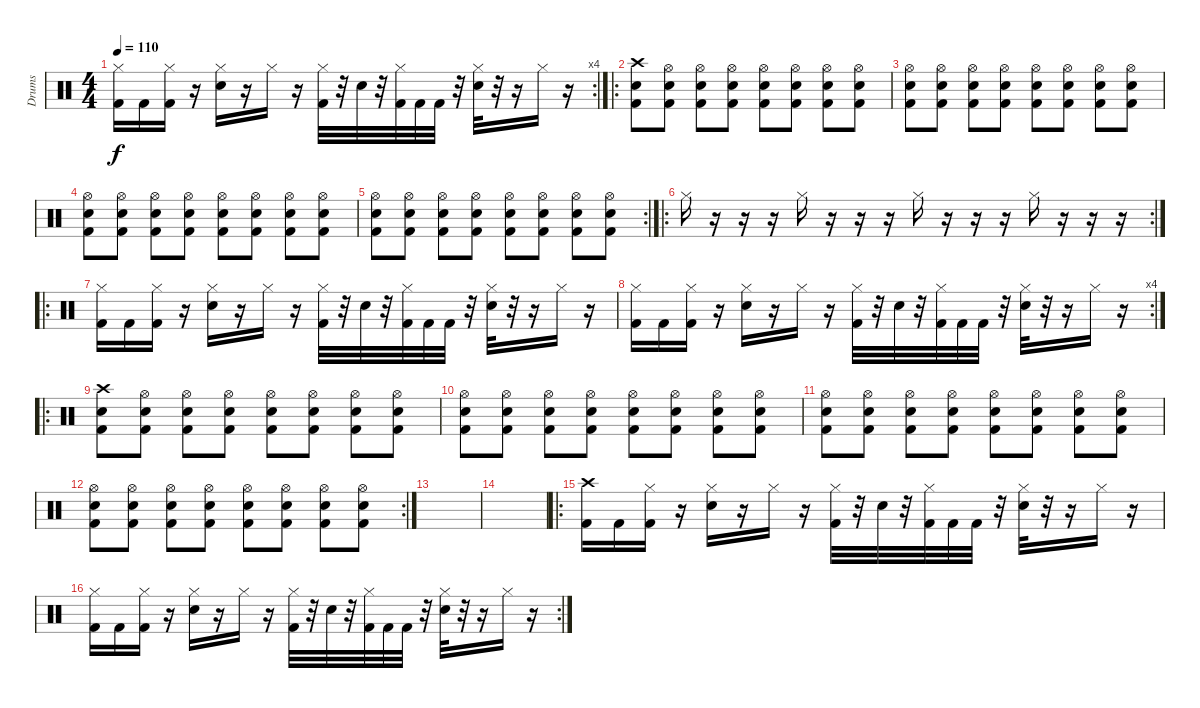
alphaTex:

\track ("Drums" "Drums") {instrument percussion}
\staff {score}
\articulation defaults
\rc 4
\ts (4 4)
\tempo 110
\clef neutral
\ks c
("Hi-Hat (closed)" "Kick (hit) 2").16{dy f} "Kick (hit) 2".16 ("Hi-Hat (closed)" "Kick (hit) 2").16 r.16 ("Hi-Hat (closed)" "Snare (hit) 2").16 r.16 "Hi-Hat (closed)".16 r.16 ("Hi-Hat (closed)" "Kick (hit) 2").32 r.32 "Snare (hit) 2".32 r.32 ("Hi-Hat (closed)" "Kick (hit) 2").32 "Kick (hit) 2".32 "Kick (hit) 2".32 r.32 ("Hi-Hat (closed)" "Snare (hit) 2").32 r.32 r.16 "Hi-Hat (closed)".16 r.16 |
\ro
("Crash high (hit)" "Snare (hit) 2" "Kick (hit) 2").8 ("Hi-Hat (open)" "Snare (hit) 2" "Kick (hit) 2").8 ("Hi-Hat (open)" "Snare (hit) 2" "Kick (hit) 2").8 ("Hi-Hat (open)" "Snare (hit) 2" "Kick (hit) 2").8 ("Hi-Hat (open)" "Snare (hit) 2" "Kick (hit) 2").8 ("Hi-Hat (open)" "Snare (hit) 2" "Kick (hit) 2").8 ("Hi-Hat (open)" "Snare (hit) 2" "Kick (hit) 2").8 ("Hi-Hat (open)" "Snare (hit) 2" "Kick (hit) 2").8 |
("Hi-Hat (open)" "Snare (hit) 2" "Kick (hit) 2").8 ("Hi-Hat (open)" "Snare (hit) 2" "Kick (hit) 2").8 ("Hi-Hat (open)" "Snare (hit) 2" "Kick (hit) 2").8 ("Hi-Hat (open)" "Snare (hit) 2" "Kick (hit) 2").8 ("Hi-Hat (open)" "Snare (hit) 2" "Kick (hit) 2").8 ("Hi-Hat (open)" "Snare (hit) 2" "Kick (hit) 2").8 ("Hi-Hat (open)" "Snare (hit) 2" "Kick (hit) 2").8 ("Hi-Hat (open)" "Snare (hit) 2" "Kick (hit) 2").8 |
("Hi-Hat (open)" "Snare (hit) 2" "Kick (hit) 2").8 ("Hi-Hat (open)" "Snare (hit) 2" "Kick (hit) 2").8 ("Hi-Hat (open)" "Snare (hit) 2" "Kick (hit) 2").8 ("Hi-Hat (open)" "Snare (hit) 2" "Kick (hit) 2").8 ("Hi-Hat (open)" "Snare (hit) 2" "Kick (hit) 2").8 ("Hi-Hat (open)" "Snare (hit) 2" "Kick (hit) 2").8 ("Hi-Hat (open)" "Snare (hit) 2" "Kick (hit) 2").8 ("Hi-Hat (open)" "Snare (hit) 2" "Kick (hit) 2").8 |
\rc 2
("Hi-Hat (open)" "Snare (hit) 2" "Kick (hit) 2").8 ("Hi-Hat (open)" "Snare (hit) 2" "Kick (hit) 2").8 ("Hi-Hat (open)" "Snare (hit) 2" "Kick (hit) 2").8 ("Hi-Hat (open)" "Snare (hit) 2" "Kick (hit) 2").8 ("Hi-Hat (open)" "Snare (hit) 2" "Kick (hit) 2").8 ("Hi-Hat (open)" "Snare (hit) 2" "Kick (hit) 2").8 ("Hi-Hat (open)" "Snare (hit) 2" "Kick (hit) 2").8 ("Hi-Hat (open)" "Snare (hit) 2" "Kick (hit) 2").8 |
\ro
\rc 2 "Hi-Hat (closed)".16
r.16 r.16 r.16 "Hi-Hat (closed)".16 r.16 r.16 r.16 "Hi-Hat (closed)".16 r.16 r.16 r.16 "Hi-Hat (closed)".16 r.16 r.16 r.16 |
\ro
("Hi-Hat (closed)" "Kick (hit) 2").16 "Kick (hit) 2".16 ("Hi-Hat (closed)" "Kick (hit) 2").16 r.16 ("Hi-Hat (closed)" "Snare (hit) 2").16 r.16 "Hi-Hat (closed)".16 r.16 ("Hi-Hat (closed)" "Kick (hit) 2").32 r.32 "Snare (hit) 2".32 r.32 ("Hi-Hat (closed)" "Kick (hit) 2").32 "Kick (hit) 2".32 "Kick (hit) 2".32 r.32 ("Hi-Hat (closed)" "Snare (hit) 2").32 r.32 r.16 "Hi-Hat (closed)".16 r.16 |
\rc 4
("Hi-Hat (closed)" "Kick (hit) 2").16 "Kick (hit) 2".16 ("Hi-Hat (closed)" "Kick (hit) 2").16 r.16 ("Hi-Hat (closed)" "Snare (hit) 2").16 r.16 "Hi-Hat (closed)".16 r.16 ("Hi-Hat (closed)" "Kick (hit) 2").32 r.32 "Snare (hit) 2".32 r.32 ("Hi-Hat (closed)" "Kick (hit) 2").32 "Kick (hit) 2".32 "Kick (hit) 2".32 r.32 ("Hi-Hat (closed)" "Snare (hit) 2").32 r.32 r.16 "Hi-Hat (closed)".16 r.16 |
\ro
("Crash high (hit)" "Snare (hit) 2" "Kick (hit) 2").8 ("Hi-Hat (open)" "Snare (hit) 2" "Kick (hit) 2").8 ("Hi-Hat (open)" "Snare (hit) 2" "Kick (hit) 2").8 ("Hi-Hat (open)" "Snare (hit) 2" "Kick (hit) 2").8 ("Hi-Hat (open)" "Snare (hit) 2" "Kick (hit) 2").8 ("Hi-Hat (open)" "Snare (hit) 2" "Kick (hit) 2").8 ("Hi-Hat (open)" "Snare (hit) 2" "Kick (hit) 2").8 ("Hi-Hat (open)" "Snare (hit) 2" "Kick (hit) 2").8 |
("Hi-Hat (open)" "Snare (hit) 2" "Kick (hit) 2").8 ("Hi-Hat (open)" "Snare (hit) 2" "Kick (hit) 2").8 ("Hi-Hat (open)" "Snare (hit) 2" "Kick (hit) 2").8 ("Hi-Hat (open)" "Snare (hit) 2" "Kick (hit) 2").8 ("Hi-Hat (open)" "Snare (hit) 2" "Kick (hit) 2").8 ("Hi-Hat (open)" "Snare (hit) 2" "Kick (hit) 2").8 ("Hi-Hat (open)" "Snare (hit) 2" "Kick (hit) 2").8 ("Hi-Hat (open)" "Snare (hit) 2" "Kick (hit) 2").8 |
("Hi-Hat (open)" "Snare (hit) 2" "Kick (hit) 2").8 ("Hi-Hat (open)" "Snare (hit) 2" "Kick (hit) 2").8 ("Hi-Hat (open)" "Snare (hit) 2" "Kick (hit) 2").8 ("Hi-Hat (open)" "Snare (hit) 2" "Kick (hit) 2").8 ("Hi-Hat (open)" "Snare (hit) 2" "Kick (hit) 2").8 ("Hi-Hat (open)" "Snare (hit) 2" "Kick (hit) 2").8 ("Hi-Hat (open)" "Snare (hit) 2" "Kick (hit) 2").8 ("Hi-Hat (open)" "Snare (hit) 2" "Kick (hit) 2").8 |
\rc 2
("Hi-Hat (open)" "Snare (hit) 2" "Kick (hit) 2").8 ("Hi-Hat (open)" "Snare (hit) 2" "Kick (hit) 2").8 ("Hi-Hat (open)" "Snare (hit) 2" "Kick (hit) 2").8 ("Hi-Hat (open)" "Snare (hit) 2" "Kick (hit) 2").8 ("Hi-Hat (open)" "Snare (hit) 2" "Kick (hit) 2").8 ("Hi-Hat (open)" "Snare (hit) 2" "Kick (hit) 2").8 ("Hi-Hat (open)" "Snare (hit) 2" "Kick (hit) 2").8 ("Hi-Hat (open)" "Snare (hit) 2" "Kick (hit) 2").8 |
|
|
\ro
("Crash high (hit)" "Kick (hit) 2").16 "Kick (hit) 2".16 ("Hi-Hat (closed)" "Kick (hit) 2").16 r.16 ("Hi-Hat (closed)" "Snare (hit) 2").16 r.16 "Hi-Hat (closed)".16 r.16 ("Hi-Hat (closed)" "Kick (hit) 2").32 r.32 "Snare (hit) 2".32 r.32 ("Hi-Hat (closed)" "Kick (hit) 2").32 "Kick (hit) 2".32 "Kick (hit) 2".32 r.32 ("Hi-Hat (closed)" "Snare (hit) 2").32 r.32 r.16 "Hi-Hat (closed)".16 r.16 |
\rc 2
("Hi-Hat (closed)" "Kick (hit) 2").16 "Kick (hit) 2".16 ("Hi-Hat (closed)" "Kick (hit) 2").16 r.16 ("Hi-Hat (closed)" "Snare (hit) 2").16 r.16 "Hi-Hat (closed)".16 r.16 ("Hi-Hat (closed)" "Kick (hit) 2").32 r.32 "Snare (hit) 2".32 r.32 ("Hi-Hat (closed)" "Kick (hit) 2").32 "Kick (hit) 2".32 "Kick (hit) 2".32 r.32 ("Hi-Hat (closed)" "Snare (hit) 2").32 r.32 r.16 "Hi-Hat (closed)".16 r.16
